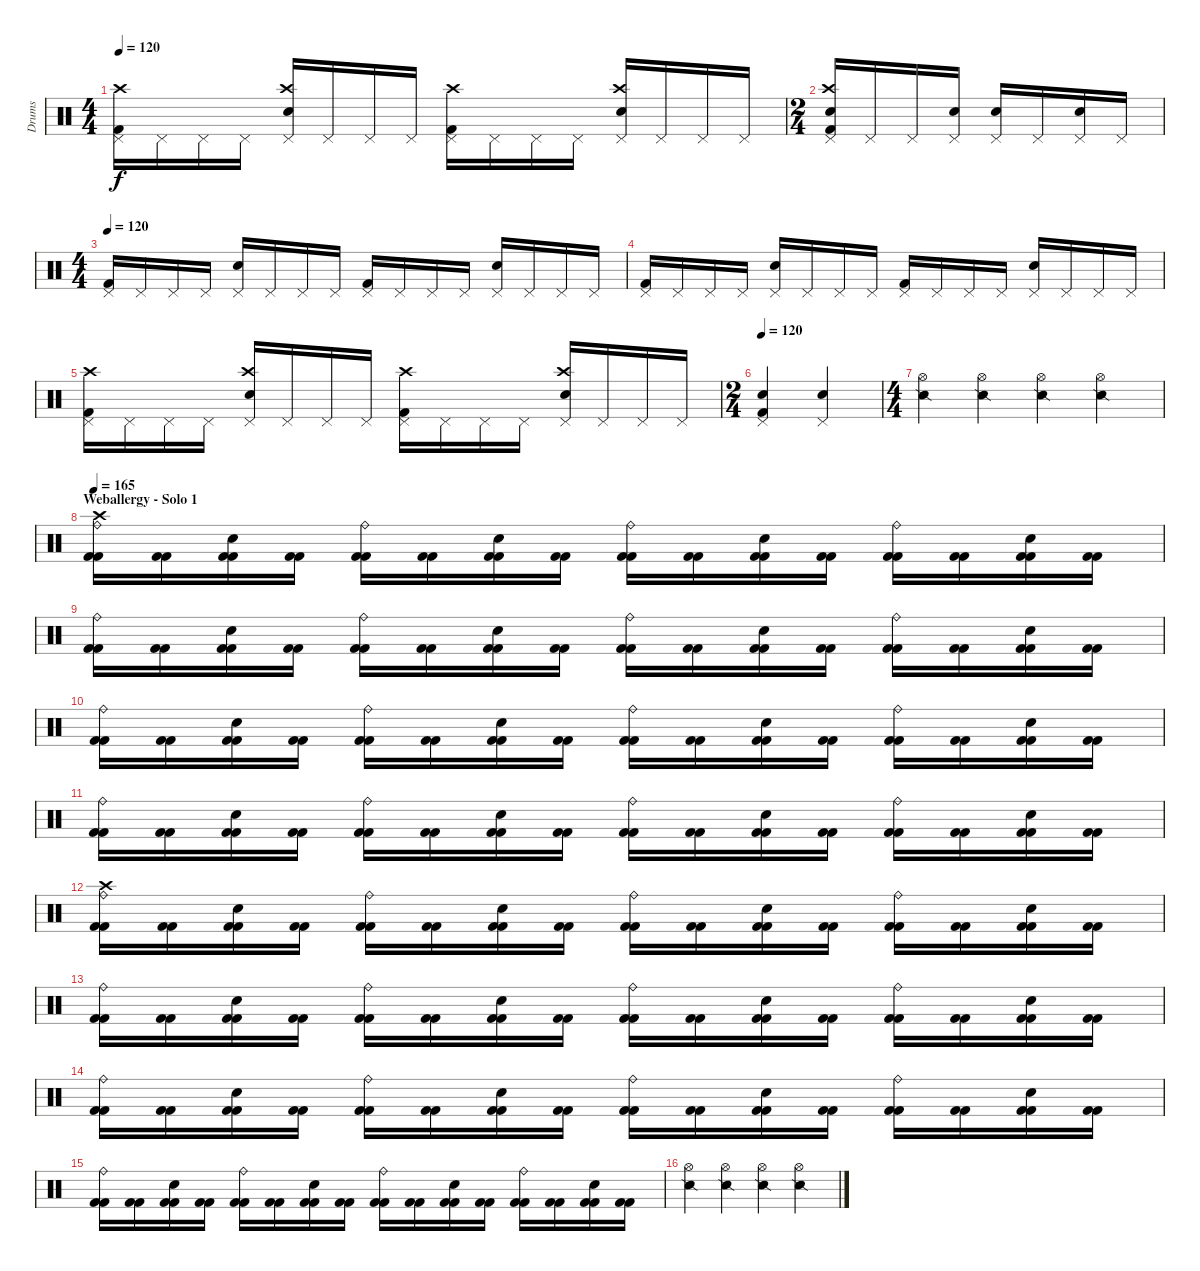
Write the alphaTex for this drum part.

\track ("Drums" "Drums") {instrument percussion}
\staff {score}
\articulation defaults
\ts (4 4)
\tempo 120
\clef neutral
\ks c
("Kick (hit) 2" "Pedal Hi-Hat (hit)" "Crash high (hit)").16{dy f} "Pedal Hi-Hat (hit)".16 "Pedal Hi-Hat (hit)".16 "Pedal Hi-Hat (hit)".16 ("Pedal Hi-Hat (hit)" "Electric Snare (hit)" "Crash high (hit)").16 "Pedal Hi-Hat (hit)".16 "Pedal Hi-Hat (hit)".16 "Pedal Hi-Hat (hit)".16 ("Kick (hit) 2" "Pedal Hi-Hat (hit)" "Crash high (hit)").16 "Pedal Hi-Hat (hit)".16 "Pedal Hi-Hat (hit)".16 "Pedal Hi-Hat (hit)".16 ("Pedal Hi-Hat (hit)" "Electric Snare (hit)" "Crash high (hit)").16 "Pedal Hi-Hat (hit)".16 "Pedal Hi-Hat (hit)".16 "Pedal Hi-Hat (hit)".16 |
\ts (2 4)
("Kick (hit) 2" "Pedal Hi-Hat (hit)" "Electric Snare (hit)" "Crash high (hit)").16 "Pedal Hi-Hat (hit)".16 "Pedal Hi-Hat (hit)".16 ("Pedal Hi-Hat (hit)" "Electric Snare (hit)").16 ("Pedal Hi-Hat (hit)" "Electric Snare (hit)").16 "Pedal Hi-Hat (hit)".16 ("Pedal Hi-Hat (hit)" "Electric Snare (hit)").16 "Pedal Hi-Hat (hit)".16 |
\ts (4 4)
\tempo 120
("Kick (hit) 2" "Pedal Hi-Hat (hit)").16 "Pedal Hi-Hat (hit)".16 "Pedal Hi-Hat (hit)".16 "Pedal Hi-Hat (hit)".16 ("Pedal Hi-Hat (hit)" "Electric Snare (hit)").16 "Pedal Hi-Hat (hit)".16 "Pedal Hi-Hat (hit)".16 "Pedal Hi-Hat (hit)".16 ("Kick (hit) 2" "Pedal Hi-Hat (hit)").16 "Pedal Hi-Hat (hit)".16 "Pedal Hi-Hat (hit)".16 "Pedal Hi-Hat (hit)".16 ("Pedal Hi-Hat (hit)" "Electric Snare (hit)").16 "Pedal Hi-Hat (hit)".16 "Pedal Hi-Hat (hit)".16 "Pedal Hi-Hat (hit)".16 |
("Kick (hit) 2" "Pedal Hi-Hat (hit)").16 "Pedal Hi-Hat (hit)".16 "Pedal Hi-Hat (hit)".16 "Pedal Hi-Hat (hit)".16 ("Pedal Hi-Hat (hit)" "Electric Snare (hit)").16 "Pedal Hi-Hat (hit)".16 "Pedal Hi-Hat (hit)".16 "Pedal Hi-Hat (hit)".16 ("Kick (hit) 2" "Pedal Hi-Hat (hit)").16 "Pedal Hi-Hat (hit)".16 "Pedal Hi-Hat (hit)".16 "Pedal Hi-Hat (hit)".16 ("Pedal Hi-Hat (hit)" "Electric Snare (hit)").16 "Pedal Hi-Hat (hit)".16 "Pedal Hi-Hat (hit)".16 "Pedal Hi-Hat (hit)".16 |
("Kick (hit) 2" "Pedal Hi-Hat (hit)" "Crash high (hit)").16 "Pedal Hi-Hat (hit)".16 "Pedal Hi-Hat (hit)".16 "Pedal Hi-Hat (hit)".16 ("Pedal Hi-Hat (hit)" "Electric Snare (hit)" "Crash high (hit)").16 "Pedal Hi-Hat (hit)".16 "Pedal Hi-Hat (hit)".16 "Pedal Hi-Hat (hit)".16 ("Kick (hit) 2" "Pedal Hi-Hat (hit)" "Crash high (hit)").16 "Pedal Hi-Hat (hit)".16 "Pedal Hi-Hat (hit)".16 "Pedal Hi-Hat (hit)".16 ("Pedal Hi-Hat (hit)" "Electric Snare (hit)" "Crash high (hit)").16 "Pedal Hi-Hat (hit)".16 "Pedal Hi-Hat (hit)".16 "Pedal Hi-Hat (hit)".16 |
\ts (2 4)
\tempo 120
("Kick (hit) 2" "Pedal Hi-Hat (hit)" "Electric Snare (hit)").4 ("Pedal Hi-Hat (hit)" "Electric Snare (hit)").4 |
\ts (4 4)
("Snare (side stick) 2" "Hi-Hat (open)").4 ("Snare (side stick) 2" "Hi-Hat (open)").4 ("Snare (side stick) 2" "Hi-Hat (open)").4 ("Snare (side stick) 2" "Hi-Hat (open)").4 |
\section ("" "Weballergy - Solo 1")
\tempo 165
("Kick (hit) 2" "Kick (hit) 2" "Ride (bell)" "Crash high (hit)").16 ("Kick (hit) 2" "Kick (hit) 2").16 ("Kick (hit) 2" "Kick (hit) 2" "Electric Snare (hit)").16 ("Kick (hit) 2" "Kick (hit) 2").16 ("Kick (hit) 2" "Kick (hit) 2" "Ride (bell)").16 ("Kick (hit) 2" "Kick (hit) 2").16 ("Kick (hit) 2" "Kick (hit) 2" "Electric Snare (hit)").16 ("Kick (hit) 2" "Kick (hit) 2").16 ("Kick (hit) 2" "Kick (hit) 2" "Ride (bell)").16 ("Kick (hit) 2" "Kick (hit) 2").16 ("Kick (hit) 2" "Kick (hit) 2" "Electric Snare (hit)").16 ("Kick (hit) 2" "Kick (hit) 2").16 ("Kick (hit) 2" "Kick (hit) 2" "Ride (bell)").16 ("Kick (hit) 2" "Kick (hit) 2").16 ("Kick (hit) 2" "Kick (hit) 2" "Electric Snare (hit)").16 ("Kick (hit) 2" "Kick (hit) 2").16 |
("Kick (hit) 2" "Kick (hit) 2" "Ride (bell)").16 ("Kick (hit) 2" "Kick (hit) 2").16 ("Kick (hit) 2" "Kick (hit) 2" "Electric Snare (hit)").16 ("Kick (hit) 2" "Kick (hit) 2").16 ("Kick (hit) 2" "Kick (hit) 2" "Ride (bell)").16 ("Kick (hit) 2" "Kick (hit) 2").16 ("Kick (hit) 2" "Kick (hit) 2" "Electric Snare (hit)").16 ("Kick (hit) 2" "Kick (hit) 2").16 ("Kick (hit) 2" "Kick (hit) 2" "Ride (bell)").16 ("Kick (hit) 2" "Kick (hit) 2").16 ("Kick (hit) 2" "Kick (hit) 2" "Electric Snare (hit)").16 ("Kick (hit) 2" "Kick (hit) 2").16 ("Kick (hit) 2" "Kick (hit) 2" "Ride (bell)").16 ("Kick (hit) 2" "Kick (hit) 2").16 ("Kick (hit) 2" "Kick (hit) 2" "Electric Snare (hit)").16 ("Kick (hit) 2" "Kick (hit) 2").16 |
("Kick (hit) 2" "Kick (hit) 2" "Ride (bell)").16 ("Kick (hit) 2" "Kick (hit) 2").16 ("Kick (hit) 2" "Kick (hit) 2" "Electric Snare (hit)").16 ("Kick (hit) 2" "Kick (hit) 2").16 ("Kick (hit) 2" "Kick (hit) 2" "Ride (bell)").16 ("Kick (hit) 2" "Kick (hit) 2").16 ("Kick (hit) 2" "Kick (hit) 2" "Electric Snare (hit)").16 ("Kick (hit) 2" "Kick (hit) 2").16 ("Kick (hit) 2" "Kick (hit) 2" "Ride (bell)").16 ("Kick (hit) 2" "Kick (hit) 2").16 ("Kick (hit) 2" "Kick (hit) 2" "Electric Snare (hit)").16 ("Kick (hit) 2" "Kick (hit) 2").16 ("Kick (hit) 2" "Kick (hit) 2" "Ride (bell)").16 ("Kick (hit) 2" "Kick (hit) 2").16 ("Kick (hit) 2" "Kick (hit) 2" "Electric Snare (hit)").16 ("Kick (hit) 2" "Kick (hit) 2").16 |
("Kick (hit) 2" "Kick (hit) 2" "Ride (bell)").16 ("Kick (hit) 2" "Kick (hit) 2").16 ("Kick (hit) 2" "Kick (hit) 2" "Electric Snare (hit)").16 ("Kick (hit) 2" "Kick (hit) 2").16 ("Kick (hit) 2" "Kick (hit) 2" "Ride (bell)").16 ("Kick (hit) 2" "Kick (hit) 2").16 ("Kick (hit) 2" "Kick (hit) 2" "Electric Snare (hit)").16 ("Kick (hit) 2" "Kick (hit) 2").16 ("Kick (hit) 2" "Kick (hit) 2" "Ride (bell)").16 ("Kick (hit) 2" "Kick (hit) 2").16 ("Kick (hit) 2" "Kick (hit) 2" "Electric Snare (hit)").16 ("Kick (hit) 2" "Kick (hit) 2").16 ("Kick (hit) 2" "Kick (hit) 2" "Ride (bell)").16 ("Kick (hit) 2" "Kick (hit) 2").16 ("Kick (hit) 2" "Kick (hit) 2" "Electric Snare (hit)").16 ("Kick (hit) 2" "Kick (hit) 2").16 |
("Kick (hit) 2" "Kick (hit) 2" "Ride (bell)" "Crash high (hit)").16 ("Kick (hit) 2" "Kick (hit) 2").16 ("Kick (hit) 2" "Kick (hit) 2" "Electric Snare (hit)").16 ("Kick (hit) 2" "Kick (hit) 2").16 ("Kick (hit) 2" "Kick (hit) 2" "Ride (bell)").16 ("Kick (hit) 2" "Kick (hit) 2").16 ("Kick (hit) 2" "Kick (hit) 2" "Electric Snare (hit)").16 ("Kick (hit) 2" "Kick (hit) 2").16 ("Kick (hit) 2" "Kick (hit) 2" "Ride (bell)").16 ("Kick (hit) 2" "Kick (hit) 2").16 ("Kick (hit) 2" "Kick (hit) 2" "Electric Snare (hit)").16 ("Kick (hit) 2" "Kick (hit) 2").16 ("Kick (hit) 2" "Kick (hit) 2" "Ride (bell)").16 ("Kick (hit) 2" "Kick (hit) 2").16 ("Kick (hit) 2" "Kick (hit) 2" "Electric Snare (hit)").16 ("Kick (hit) 2" "Kick (hit) 2").16 |
("Kick (hit) 2" "Kick (hit) 2" "Ride (bell)").16 ("Kick (hit) 2" "Kick (hit) 2").16 ("Kick (hit) 2" "Kick (hit) 2" "Electric Snare (hit)").16 ("Kick (hit) 2" "Kick (hit) 2").16 ("Kick (hit) 2" "Kick (hit) 2" "Ride (bell)").16 ("Kick (hit) 2" "Kick (hit) 2").16 ("Kick (hit) 2" "Kick (hit) 2" "Electric Snare (hit)").16 ("Kick (hit) 2" "Kick (hit) 2").16 ("Kick (hit) 2" "Kick (hit) 2" "Ride (bell)").16 ("Kick (hit) 2" "Kick (hit) 2").16 ("Kick (hit) 2" "Kick (hit) 2" "Electric Snare (hit)").16 ("Kick (hit) 2" "Kick (hit) 2").16 ("Kick (hit) 2" "Kick (hit) 2" "Ride (bell)").16 ("Kick (hit) 2" "Kick (hit) 2").16 ("Kick (hit) 2" "Kick (hit) 2" "Electric Snare (hit)").16 ("Kick (hit) 2" "Kick (hit) 2").16 |
("Kick (hit) 2" "Kick (hit) 2" "Ride (bell)").16 ("Kick (hit) 2" "Kick (hit) 2").16 ("Kick (hit) 2" "Kick (hit) 2" "Electric Snare (hit)").16 ("Kick (hit) 2" "Kick (hit) 2").16 ("Kick (hit) 2" "Kick (hit) 2" "Ride (bell)").16 ("Kick (hit) 2" "Kick (hit) 2").16 ("Kick (hit) 2" "Kick (hit) 2" "Electric Snare (hit)").16 ("Kick (hit) 2" "Kick (hit) 2").16 ("Kick (hit) 2" "Kick (hit) 2" "Ride (bell)").16 ("Kick (hit) 2" "Kick (hit) 2").16 ("Kick (hit) 2" "Kick (hit) 2" "Electric Snare (hit)").16 ("Kick (hit) 2" "Kick (hit) 2").16 ("Kick (hit) 2" "Kick (hit) 2" "Ride (bell)").16 ("Kick (hit) 2" "Kick (hit) 2").16 ("Kick (hit) 2" "Kick (hit) 2" "Electric Snare (hit)").16 ("Kick (hit) 2" "Kick (hit) 2").16 |
("Kick (hit) 2" "Kick (hit) 2" "Ride (bell)").16 ("Kick (hit) 2" "Kick (hit) 2").16 ("Kick (hit) 2" "Kick (hit) 2" "Electric Snare (hit)").16 ("Kick (hit) 2" "Kick (hit) 2").16 ("Kick (hit) 2" "Kick (hit) 2" "Ride (bell)").16 ("Kick (hit) 2" "Kick (hit) 2").16 ("Kick (hit) 2" "Kick (hit) 2" "Electric Snare (hit)").16 ("Kick (hit) 2" "Kick (hit) 2").16 ("Kick (hit) 2" "Kick (hit) 2" "Ride (bell)").16 ("Kick (hit) 2" "Kick (hit) 2").16 ("Kick (hit) 2" "Kick (hit) 2" "Electric Snare (hit)").16 ("Kick (hit) 2" "Kick (hit) 2").16 ("Kick (hit) 2" "Kick (hit) 2" "Ride (bell)").16 ("Kick (hit) 2" "Kick (hit) 2").16 ("Kick (hit) 2" "Kick (hit) 2" "Electric Snare (hit)").16 ("Kick (hit) 2" "Kick (hit) 2").16 |
("Snare (side stick) 2" "Hi-Hat (open)").4 ("Snare (side stick) 2" "Hi-Hat (open)").4 ("Snare (side stick) 2" "Hi-Hat (open)").4 ("Snare (side stick) 2" "Hi-Hat (open)").4
